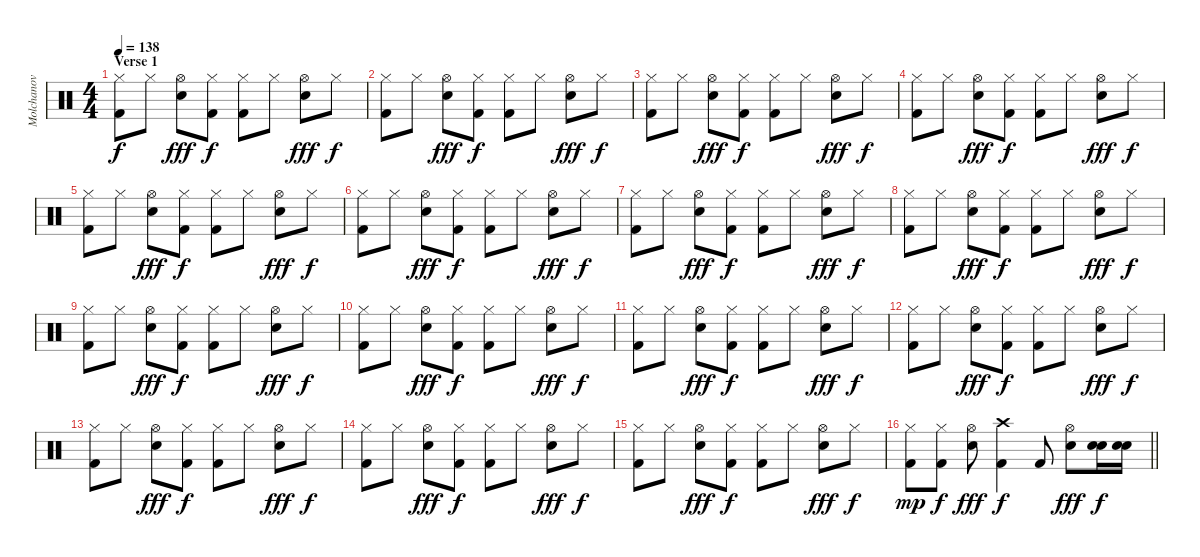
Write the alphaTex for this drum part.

\track ("Molchanov" "Molchanov") {instrument percussion}
\staff {score}
\articulation defaults
\ts (4 4)
\section ("" "Verse 1")
\tempo 138
\clef neutral
\ks c
("Hi-Hat (closed)" "Kick (hit) 2").8{dy f} "Hi-Hat (closed)".8 ("Hi-Hat (open)" "Electric Snare (hit)").8{dy fff} ("Hi-Hat (closed)" "Kick (hit) 2").8{dy f} ("Hi-Hat (closed)" "Kick (hit) 2").8 "Hi-Hat (closed)".8 ("Hi-Hat (open)" "Electric Snare (hit)").8{dy fff} "Hi-Hat (closed)".8{dy f} |
("Hi-Hat (closed)" "Kick (hit) 2").8 "Hi-Hat (closed)".8 ("Hi-Hat (open)" "Electric Snare (hit)").8{dy fff} ("Hi-Hat (closed)" "Kick (hit) 2").8{dy f} ("Hi-Hat (closed)" "Kick (hit) 2").8 "Hi-Hat (closed)".8 ("Hi-Hat (open)" "Electric Snare (hit)").8{dy fff} "Hi-Hat (closed)".8{dy f} |
("Hi-Hat (closed)" "Kick (hit) 2").8 "Hi-Hat (closed)".8 ("Hi-Hat (open)" "Electric Snare (hit)").8{dy fff} ("Hi-Hat (closed)" "Kick (hit) 2").8{dy f} ("Hi-Hat (closed)" "Kick (hit) 2").8 "Hi-Hat (closed)".8 ("Hi-Hat (open)" "Electric Snare (hit)").8{dy fff} "Hi-Hat (closed)".8{dy f} |
("Hi-Hat (closed)" "Kick (hit) 2").8 "Hi-Hat (closed)".8 ("Hi-Hat (open)" "Electric Snare (hit)").8{dy fff} ("Hi-Hat (closed)" "Kick (hit) 2").8{dy f} ("Hi-Hat (closed)" "Kick (hit) 2").8 "Hi-Hat (closed)".8 ("Hi-Hat (open)" "Electric Snare (hit)").8{dy fff} "Hi-Hat (closed)".8{dy f} |
("Hi-Hat (closed)" "Kick (hit) 2").8 "Hi-Hat (closed)".8 ("Hi-Hat (open)" "Electric Snare (hit)").8{dy fff} ("Hi-Hat (closed)" "Kick (hit) 2").8{dy f} ("Hi-Hat (closed)" "Kick (hit) 2").8 "Hi-Hat (closed)".8 ("Hi-Hat (open)" "Electric Snare (hit)").8{dy fff} "Hi-Hat (closed)".8{dy f} |
("Hi-Hat (closed)" "Kick (hit) 2").8 "Hi-Hat (closed)".8 ("Hi-Hat (open)" "Electric Snare (hit)").8{dy fff} ("Hi-Hat (closed)" "Kick (hit) 2").8{dy f} ("Hi-Hat (closed)" "Kick (hit) 2").8 "Hi-Hat (closed)".8 ("Hi-Hat (open)" "Electric Snare (hit)").8{dy fff} "Hi-Hat (closed)".8{dy f} |
("Hi-Hat (closed)" "Kick (hit) 2").8 "Hi-Hat (closed)".8 ("Hi-Hat (open)" "Electric Snare (hit)").8{dy fff} ("Hi-Hat (closed)" "Kick (hit) 2").8{dy f} ("Hi-Hat (closed)" "Kick (hit) 2").8 "Hi-Hat (closed)".8 ("Hi-Hat (open)" "Electric Snare (hit)").8{dy fff} "Hi-Hat (closed)".8{dy f} |
("Hi-Hat (closed)" "Kick (hit) 2").8 "Hi-Hat (closed)".8 ("Hi-Hat (open)" "Electric Snare (hit)").8{dy fff} ("Hi-Hat (closed)" "Kick (hit) 2").8{dy f} ("Hi-Hat (closed)" "Kick (hit) 2").8 "Hi-Hat (closed)".8 ("Hi-Hat (open)" "Electric Snare (hit)").8{dy fff} "Hi-Hat (closed)".8{dy f} |
("Hi-Hat (closed)" "Kick (hit) 2").8 "Hi-Hat (closed)".8 ("Hi-Hat (open)" "Electric Snare (hit)").8{dy fff} ("Hi-Hat (closed)" "Kick (hit) 2").8{dy f} ("Hi-Hat (closed)" "Kick (hit) 2").8 "Hi-Hat (closed)".8 ("Hi-Hat (open)" "Electric Snare (hit)").8{dy fff} "Hi-Hat (closed)".8{dy f} |
("Hi-Hat (closed)" "Kick (hit) 2").8 "Hi-Hat (closed)".8 ("Hi-Hat (open)" "Electric Snare (hit)").8{dy fff} ("Hi-Hat (closed)" "Kick (hit) 2").8{dy f} ("Hi-Hat (closed)" "Kick (hit) 2").8 "Hi-Hat (closed)".8 ("Hi-Hat (open)" "Electric Snare (hit)").8{dy fff} "Hi-Hat (closed)".8{dy f} |
("Hi-Hat (closed)" "Kick (hit) 2").8 "Hi-Hat (closed)".8 ("Hi-Hat (open)" "Electric Snare (hit)").8{dy fff} ("Hi-Hat (closed)" "Kick (hit) 2").8{dy f} ("Hi-Hat (closed)" "Kick (hit) 2").8 "Hi-Hat (closed)".8 ("Hi-Hat (open)" "Electric Snare (hit)").8{dy fff} "Hi-Hat (closed)".8{dy f} |
("Hi-Hat (closed)" "Kick (hit) 2").8 "Hi-Hat (closed)".8 ("Hi-Hat (open)" "Electric Snare (hit)").8{dy fff} ("Hi-Hat (closed)" "Kick (hit) 2").8{dy f} ("Hi-Hat (closed)" "Kick (hit) 2").8 "Hi-Hat (closed)".8 ("Hi-Hat (open)" "Electric Snare (hit)").8{dy fff} "Hi-Hat (closed)".8{dy f} |
("Hi-Hat (closed)" "Kick (hit) 2").8 "Hi-Hat (closed)".8 ("Hi-Hat (open)" "Electric Snare (hit)").8{dy fff} ("Hi-Hat (closed)" "Kick (hit) 2").8{dy f} ("Hi-Hat (closed)" "Kick (hit) 2").8 "Hi-Hat (closed)".8 ("Hi-Hat (open)" "Electric Snare (hit)").8{dy fff} "Hi-Hat (closed)".8{dy f} |
("Hi-Hat (closed)" "Kick (hit) 2").8 "Hi-Hat (closed)".8 ("Hi-Hat (open)" "Electric Snare (hit)").8{dy fff} ("Hi-Hat (closed)" "Kick (hit) 2").8{dy f} ("Hi-Hat (closed)" "Kick (hit) 2").8 "Hi-Hat (closed)".8 ("Hi-Hat (open)" "Electric Snare (hit)").8{dy fff} "Hi-Hat (closed)".8{dy f} |
("Hi-Hat (closed)" "Kick (hit) 2").8 "Hi-Hat (closed)".8 ("Hi-Hat (open)" "Electric Snare (hit)").8{dy fff} ("Hi-Hat (closed)" "Kick (hit) 2").8{dy f} ("Hi-Hat (closed)" "Kick (hit) 2").8 "Hi-Hat (closed)".8 ("Hi-Hat (open)" "Electric Snare (hit)").8{dy fff} "Hi-Hat (closed)".8{dy f} |
\barLineRight lightlight
("Hi-Hat (closed)" "Kick (hit) 2").8{dy mp} ("Hi-Hat (closed)" "Kick (hit) 2").8{dy f} ("Hi-Hat (open)" "Electric Snare (hit)").8{dy fff} ("Crash high (hit)" "Kick (hit) 2").4{dy f} "Kick (hit) 2".8 ("Hi-Hat (open)" "Electric Snare (hit)").8{dy fff} ("Electric Snare (hit)" "Electric Snare (hit)").16{dy f} ("Electric Snare (hit)" "Electric Snare (hit)").16
